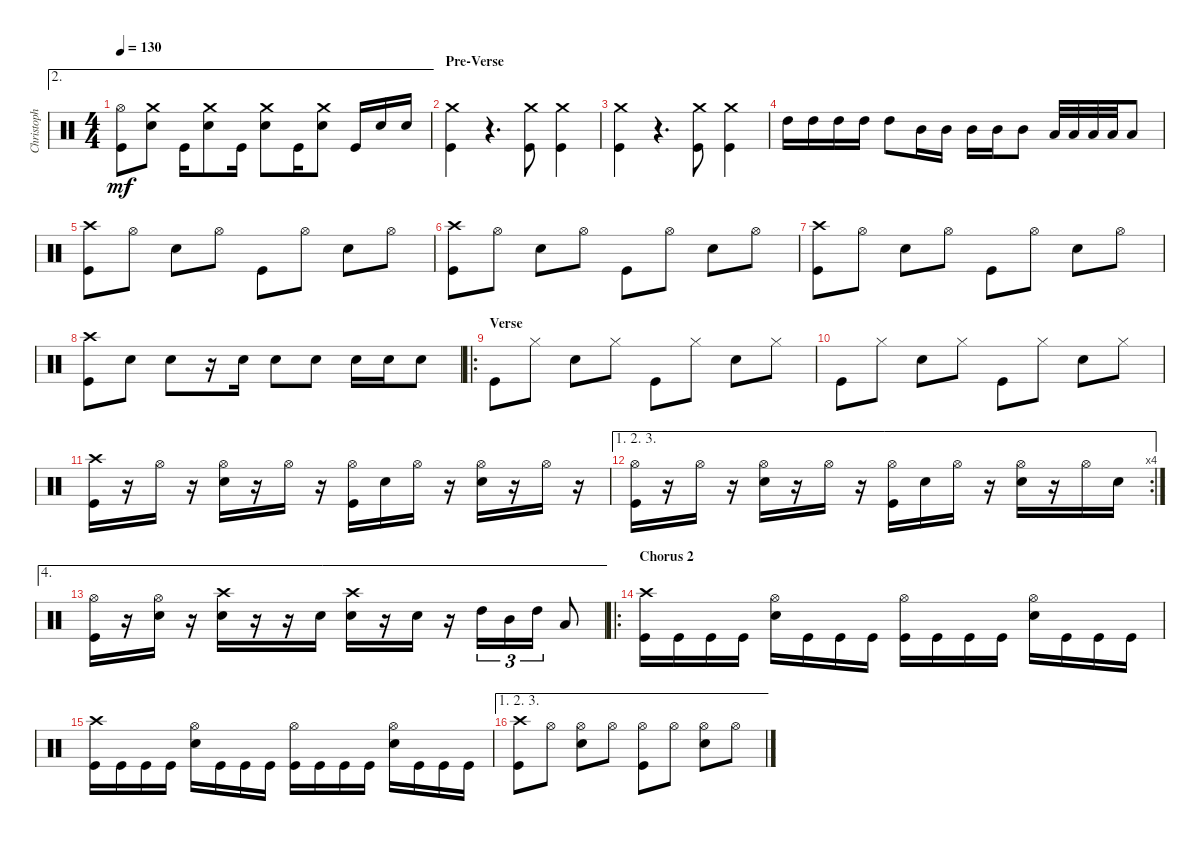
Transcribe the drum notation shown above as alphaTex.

\track ("Christoph Schneider" "Christoph ") {instrument percussion}
\staff {score}
\articulation defaults
\ae 2
\ts (4 4)
\tempo 130
\clef neutral
\ks c
("Hi-Hat (open)" "Kick (hit)").8{dy mf} ("Crash medium (hit)" "Snare (hit) 2").8 "Kick (hit)".16 ("Crash medium (hit)" "Snare (hit) 2").8 "Kick (hit)".16 ("Crash medium (hit)" "Snare (hit) 2").8 "Kick (hit)".16 ("Crash medium (hit)" "Snare (hit) 2").8 "Kick (hit)".16 "Snare (hit) 2".16 "Snare (hit) 2".16 |
\section ("" "Pre-Verse")
("Crash medium (hit)" "Kick (hit)").4 r.4{d} ("Crash medium (hit)" "Kick (hit)").8 ("Crash medium (hit)" "Kick (hit)").4 |
("Crash medium (hit)" "Kick (hit)").4 r.4{d} ("Crash medium (hit)" "Kick (hit)").8 ("Crash medium (hit)" "Kick (hit)").4 |
"High Tom (hit)".16 "High Tom (hit)".16 "High Tom (hit)".16 "High Tom (hit)".16 "High Tom (hit)".8 "Mid Tom (hit)".16 "Mid Tom (hit)".16 "Mid Tom (hit)".16 "Mid Tom (hit)".16 "Mid Tom (hit)".8 "Low Floor Tom (hit)".32 "Low Floor Tom (hit)".32 "Low Floor Tom (hit)".32 "Low Floor Tom (hit)".32 "Low Floor Tom (hit)".8 |
("Crash high (hit)" "Kick (hit)").8 "Hi-Hat (open)".8 "Snare (hit) 2".8 "Hi-Hat (open)".8 "Kick (hit)".8 "Hi-Hat (open)".8 "Snare (hit) 2".8 "Hi-Hat (open)".8 |
("Crash high (hit)" "Kick (hit)").8 "Hi-Hat (open)".8 "Snare (hit) 2".8 "Hi-Hat (open)".8 "Kick (hit)".8 "Hi-Hat (open)".8 "Snare (hit) 2".8 "Hi-Hat (open)".8 |
("Crash high (hit)" "Kick (hit)").8 "Hi-Hat (open)".8 "Snare (hit) 2".8 "Hi-Hat (open)".8 "Kick (hit)".8 "Hi-Hat (open)".8 "Snare (hit) 2".8 "Hi-Hat (open)".8 |
("Crash high (hit)" "Kick (hit)").8 "Snare (hit) 2".8 "Snare (hit) 2".8 r.16 "Snare (hit) 2".16 "Snare (hit) 2".8 "Snare (hit) 2".8 "Snare (hit) 2".16 "Snare (hit) 2".16 "Snare (hit) 2".8 |
\ro
\section ("" "Verse")
"Kick (hit)".8 "Hi-Hat (closed)".8 "Snare (hit) 2".8 "Hi-Hat (closed)".8 "Kick (hit)".8 "Hi-Hat (closed)".8 "Snare (hit) 2".8 "Hi-Hat (closed)".8 |
"Kick (hit)".8 "Hi-Hat (closed)".8 "Snare (hit) 2".8 "Hi-Hat (closed)".8 "Kick (hit)".8 "Hi-Hat (closed)".8 "Snare (hit) 2".8 "Hi-Hat (closed)".8 |
("Crash high (hit)" "Kick (hit)").16 r.16 "Hi-Hat (open)".16 r.16 ("Hi-Hat (open)" "Snare (hit) 2").16 r.16 "Hi-Hat (open)".16 r.16 ("Hi-Hat (open)" "Kick (hit)").16 "Snare (hit) 2".16 "Hi-Hat (open)".16 r.16 ("Hi-Hat (open)" "Snare (hit) 2").16 r.16 "Hi-Hat (open)".16 r.16 |
\ae (1 2 3)
\rc 4
("Hi-Hat (open)" "Kick (hit)").16 r.16 "Hi-Hat (open)".16 r.16 ("Hi-Hat (open)" "Snare (hit) 2").16 r.16 "Hi-Hat (open)".16 r.16 ("Hi-Hat (open)" "Kick (hit)").16 "Snare (hit) 2".16 "Hi-Hat (open)".16 r.16 ("Hi-Hat (open)" "Snare (hit) 2").16 r.16 "Hi-Hat (open)".16 "Snare (hit) 2".16 |
\ae 4
("Hi-Hat (open)" "Kick (hit)").16 r.16 ("Hi-Hat (open)" "Snare (hit) 2").16 r.16 ("Crash high (hit)" "Snare (hit) 2").16 r.16 r.16 "Snare (hit) 2".16 ("Crash high (hit)" "Snare (hit) 2").16 r.16 "Snare (hit) 2".16 r.16 "High Tom (hit)".16{tu (3 2)} "Mid Tom (hit)".16{tu (3 2)} "High Tom (hit)".16{tu (3 2)} "Low Floor Tom (hit)".8 |
\ro
\section ("" "Chorus 2")
("Crash high (hit)" "Kick (hit)").16 "Kick (hit)".16 "Kick (hit)".16 "Kick (hit)".16 ("Hi-Hat (open)" "Snare (hit) 2").16 "Kick (hit)".16 "Kick (hit)".16 "Kick (hit)".16 ("Hi-Hat (open)" "Kick (hit)").16 "Kick (hit)".16 "Kick (hit)".16 "Kick (hit)".16 ("Hi-Hat (open)" "Snare (hit) 2").16 "Kick (hit)".16 "Kick (hit)".16 "Kick (hit)".16 |
("Crash high (hit)" "Kick (hit)").16 "Kick (hit)".16 "Kick (hit)".16 "Kick (hit)".16 ("Hi-Hat (open)" "Snare (hit) 2").16 "Kick (hit)".16 "Kick (hit)".16 "Kick (hit)".16 ("Hi-Hat (open)" "Kick (hit)").16 "Kick (hit)".16 "Kick (hit)".16 "Kick (hit)".16 ("Hi-Hat (open)" "Snare (hit) 2").16 "Kick (hit)".16 "Kick (hit)".16 "Kick (hit)".16 |
\ae (1 2 3)
("Crash high (hit)" "Kick (hit)").8 "Hi-Hat (open)".8 ("Hi-Hat (open)" "Snare (hit) 2").8 "Hi-Hat (open)".8 ("Hi-Hat (open)" "Kick (hit)").8 "Hi-Hat (open)".8 ("Hi-Hat (open)" "Snare (hit) 2").8 "Hi-Hat (open)".8
